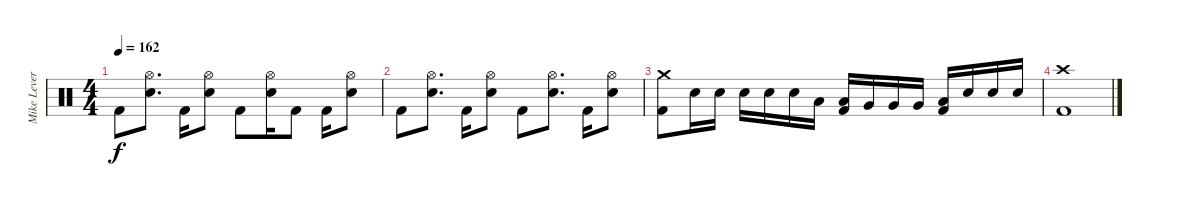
\track ("Mike Leverence - Drums" "Mike Lever") {instrument percussion}
\staff {score}
\articulation defaults
\ts (4 4)
\tempo 162
\clef neutral
\ks c "Kick (hit) 2".8{dy f}
("Hi-Hat (open)" "Electric Snare (hit)").8{d} "Kick (hit) 2".16 ("Hi-Hat (open)" "Electric Snare (hit)").8 "Kick (hit) 2".8 ("Hi-Hat (open)" "Electric Snare (hit)").16 "Kick (hit) 2".8 "Kick (hit) 2".16 ("Hi-Hat (open)" "Electric Snare (hit)").8 |
"Kick (hit) 2".8 ("Hi-Hat (open)" "Electric Snare (hit)").8{d} "Kick (hit) 2".16 ("Hi-Hat (open)" "Electric Snare (hit)").8 "Kick (hit) 2".8 ("Hi-Hat (open)" "Electric Snare (hit)").8{d} "Kick (hit) 2".16 ("Hi-Hat (open)" "Electric Snare (hit)").8 |
("Crash medium (hit)" "Kick (hit) 2").8 "Electric Snare (hit)".16 "Electric Snare (hit)".16 "Electric Snare (hit)".16 "Electric Snare (hit)".16 "Electric Snare (hit)".16 "Low Tom (hit)".16 ("Low Tom (hit)" "Kick (hit) 2").16 "Very Low Tom (hit)".16 "Very Low Tom (hit)".16 "Very Low Tom (hit)".16 ("Low Floor Tom (hit)" "Kick (hit) 2").16 "Electric Snare (hit)".16 "Electric Snare (hit)".16 "Electric Snare (hit)".16 |
("Crash high (hit)" "Kick (hit) 2").1
